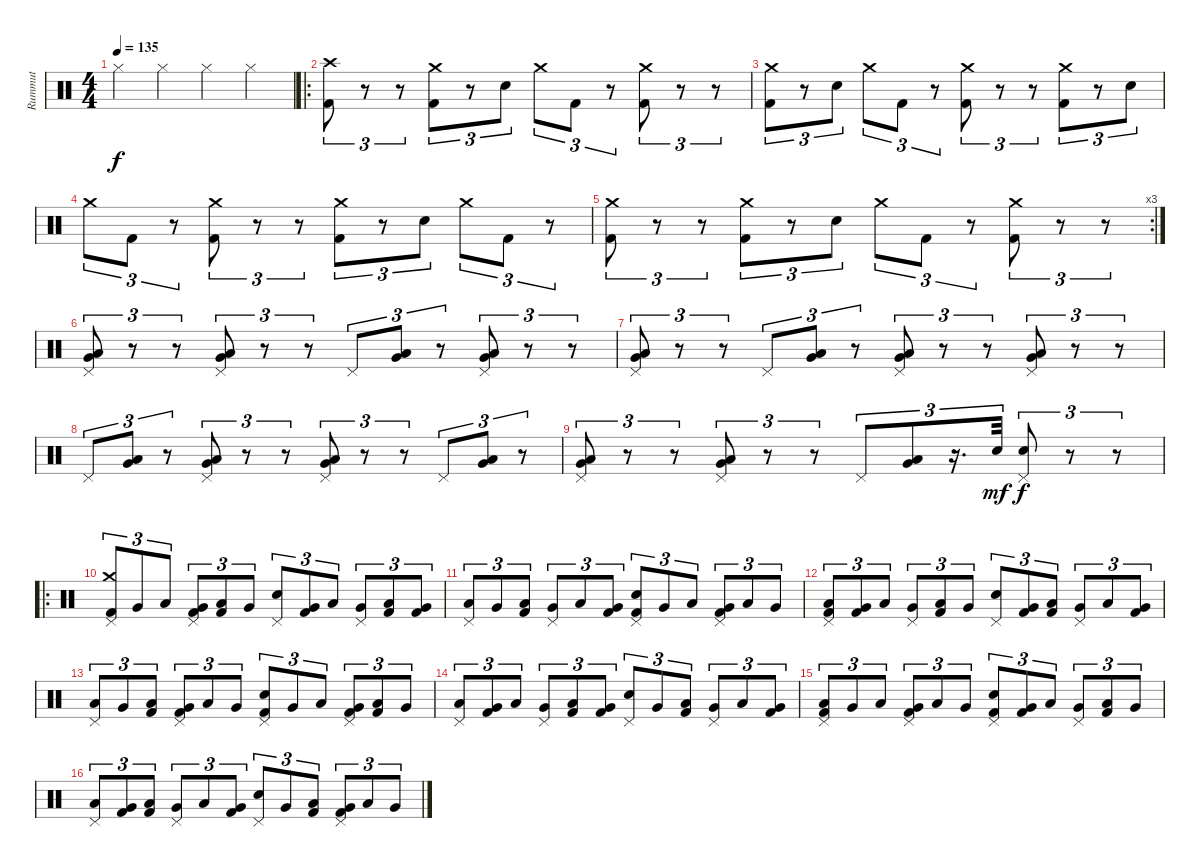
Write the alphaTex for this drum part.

\track ("Rummut" "Rummut") {instrument percussion}
\staff {score}
\articulation defaults
\ts (4 4)
\tempo 135
\clef neutral
\ks c "Hi-Hat (closed)".4{dy f} "Hi-Hat (closed)".4 "Hi-Hat (closed)".4 "Hi-Hat (closed)".4
|
\ro
("Crash high (hit)" "Kick (hit) 2").8{tu (3 2)} r.8{tu (3 2)} r.8{tu (3 2)} ("Crash medium (hit)" "Kick (hit) 2").8{tu (3 2)} r.8{tu (3 2)} "Electric Snare (hit)".8{tu (3 2)} "Crash medium (hit)".8{tu (3 2)} "Kick (hit) 2".8{tu (3 2)} r.8{tu (3 2)} ("Crash medium (hit)" "Kick (hit) 2").8{tu (3 2)} r.8{tu (3 2)} r.8{tu (3 2)} |
("Crash medium (hit)" "Kick (hit) 2").8{tu (3 2)} r.8{tu (3 2)} "Electric Snare (hit)".8{tu (3 2)} "Crash medium (hit)".8{tu (3 2)} "Kick (hit) 2".8{tu (3 2)} r.8{tu (3 2)} ("Crash medium (hit)" "Kick (hit) 2").8{tu (3 2)} r.8{tu (3 2)} r.8{tu (3 2)} ("Crash medium (hit)" "Kick (hit) 2").8{tu (3 2)} r.8{tu (3 2)} "Electric Snare (hit)".8{tu (3 2)} |
"Crash medium (hit)".8{tu (3 2)} "Kick (hit) 2".8{tu (3 2)} r.8{tu (3 2)} ("Crash medium (hit)" "Kick (hit) 2").8{tu (3 2)} r.8{tu (3 2)} r.8{tu (3 2)} ("Crash medium (hit)" "Kick (hit) 2").8{tu (3 2)} r.8{tu (3 2)} "Electric Snare (hit)".8{tu (3 2)} "Crash medium (hit)".8{tu (3 2)} "Kick (hit) 2".8{tu (3 2)} r.8{tu (3 2)} |
\rc 3
("Crash medium (hit)" "Kick (hit) 2").8{tu (3 2)} r.8{tu (3 2)} r.8{tu (3 2)} ("Crash medium (hit)" "Kick (hit) 2").8{tu (3 2)} r.8{tu (3 2)} "Electric Snare (hit)".8{tu (3 2)} "Crash medium (hit)".8{tu (3 2)} "Kick (hit) 2".8{tu (3 2)} r.8{tu (3 2)} ("Crash medium (hit)" "Kick (hit) 2").8{tu (3 2)} r.8{tu (3 2)} r.8{tu (3 2)} |
("Pedal Hi-Hat (hit)" "Very Low Tom (hit)" "Low Floor Tom (hit)").8{tu (3 2)} r.8{tu (3 2)} r.8{tu (3 2)} ("Pedal Hi-Hat (hit)" "Very Low Tom (hit)" "Low Floor Tom (hit)").8{tu (3 2)} r.8{tu (3 2)} r.8{tu (3 2)} "Pedal Hi-Hat (hit)".8{tu (3 2)} ("Very Low Tom (hit)" "Low Floor Tom (hit)").8{tu (3 2)} r.8{tu (3 2)} ("Pedal Hi-Hat (hit)" "Very Low Tom (hit)" "Low Floor Tom (hit)").8{tu (3 2)} r.8{tu (3 2)} r.8{tu (3 2)} |
("Pedal Hi-Hat (hit)" "Very Low Tom (hit)" "Low Floor Tom (hit)").8{tu (3 2)} r.8{tu (3 2)} r.8{tu (3 2)} "Pedal Hi-Hat (hit)".8{tu (3 2)} ("Very Low Tom (hit)" "Low Floor Tom (hit)").8{tu (3 2)} r.8{tu (3 2)} ("Pedal Hi-Hat (hit)" "Very Low Tom (hit)" "Low Floor Tom (hit)").8{tu (3 2)} r.8{tu (3 2)} r.8{tu (3 2)} ("Pedal Hi-Hat (hit)" "Very Low Tom (hit)" "Low Floor Tom (hit)").8{tu (3 2)} r.8{tu (3 2)} r.8{tu (3 2)} |
"Pedal Hi-Hat (hit)".8{tu (3 2)} ("Very Low Tom (hit)" "Low Floor Tom (hit)").8{tu (3 2)} r.8{tu (3 2)} ("Pedal Hi-Hat (hit)" "Very Low Tom (hit)" "Low Floor Tom (hit)").8{tu (3 2)} r.8{tu (3 2)} r.8{tu (3 2)} ("Pedal Hi-Hat (hit)" "Very Low Tom (hit)" "Low Floor Tom (hit)").8{tu (3 2)} r.8{tu (3 2)} r.8{tu (3 2)} "Pedal Hi-Hat (hit)".8{tu (3 2)} ("Very Low Tom (hit)" "Low Floor Tom (hit)").8{tu (3 2)} r.8{tu (3 2)} |
("Pedal Hi-Hat (hit)" "Very Low Tom (hit)" "Low Floor Tom (hit)").8{tu (3 2)} r.8{tu (3 2)} r.8{tu (3 2)} ("Pedal Hi-Hat (hit)" "Very Low Tom (hit)" "Low Floor Tom (hit)").8{tu (3 2)} r.8{tu (3 2)} r.8{tu (3 2)} "Pedal Hi-Hat (hit)".8{tu (3 2)} ("Very Low Tom (hit)" "Low Floor Tom (hit)").8{tu (3 2)} r.16{d tu (3 2)} "Electric Snare (hit)".32{tu (3 2) dy mf} ("Pedal Hi-Hat (hit)" "Electric Snare (hit)").8{tu (3 2) dy f} r.8{tu (3 2)} r.8{tu (3 2)} |
\ro
("Crash medium (hit)" "Pedal Hi-Hat (hit)" "Kick (hit) 2").8{tu (3 2)} "Very Low Tom (hit)".8{tu (3 2)} "Low Floor Tom (hit)".8{tu (3 2)} ("Pedal Hi-Hat (hit)" "Very Low Tom (hit)" "Kick (hit) 2").8{tu (3 2)} ("Low Floor Tom (hit)" "Kick (hit) 2").8{tu (3 2)} "Very Low Tom (hit)".8{tu (3 2)} ("Pedal Hi-Hat (hit)" "Electric Snare (hit)").8{tu (3 2)} ("Very Low Tom (hit)" "Kick (hit) 2").8{tu (3 2)} "Low Floor Tom (hit)".8{tu (3 2)} ("Pedal Hi-Hat (hit)" "Very Low Tom (hit)").8{tu (3 2)} ("Low Floor Tom (hit)" "Kick (hit) 2").8{tu (3 2)} ("Very Low Tom (hit)" "Kick (hit) 2").8{tu (3 2)} |
("Pedal Hi-Hat (hit)" "Low Floor Tom (hit)").8{tu (3 2)} "Very Low Tom (hit)".8{tu (3 2)} ("Low Floor Tom (hit)" "Kick (hit) 2").8{tu (3 2)} ("Pedal Hi-Hat (hit)" "Very Low Tom (hit)").8{tu (3 2)} "Low Floor Tom (hit)".8{tu (3 2)} ("Very Low Tom (hit)" "Kick (hit) 2").8{tu (3 2)} ("Pedal Hi-Hat (hit)" "Electric Snare (hit)" "Kick (hit) 2").8{tu (3 2)} "Very Low Tom (hit)".8{tu (3 2)} "Low Floor Tom (hit)".8{tu (3 2)} ("Pedal Hi-Hat (hit)" "Very Low Tom (hit)" "Kick (hit) 2").8{tu (3 2)} "Low Floor Tom (hit)".8{tu (3 2)} "Very Low Tom (hit)".8{tu (3 2)} |
("Pedal Hi-Hat (hit)" "Low Floor Tom (hit)" "Kick (hit) 2").8{tu (3 2)} ("Very Low Tom (hit)" "Kick (hit) 2").8{tu (3 2)} "Low Floor Tom (hit)".8{tu (3 2)} ("Pedal Hi-Hat (hit)" "Very Low Tom (hit)").8{tu (3 2)} ("Low Floor Tom (hit)" "Kick (hit) 2").8{tu (3 2)} "Very Low Tom (hit)".8{tu (3 2)} ("Pedal Hi-Hat (hit)" "Electric Snare (hit)").8{tu (3 2)} ("Very Low Tom (hit)" "Kick (hit) 2").8{tu (3 2)} ("Low Floor Tom (hit)" "Kick (hit) 2").8{tu (3 2)} ("Pedal Hi-Hat (hit)" "Very Low Tom (hit)").8{tu (3 2)} "Low Floor Tom (hit)".8{tu (3 2)} ("Very Low Tom (hit)" "Kick (hit) 2").8{tu (3 2)} |
("Pedal Hi-Hat (hit)" "Low Floor Tom (hit)").8{tu (3 2)} "Very Low Tom (hit)".8{tu (3 2)} ("Low Floor Tom (hit)" "Kick (hit) 2").8{tu (3 2)} ("Pedal Hi-Hat (hit)" "Very Low Tom (hit)" "Kick (hit) 2").8{tu (3 2)} "Low Floor Tom (hit)".8{tu (3 2)} "Very Low Tom (hit)".8{tu (3 2)} ("Pedal Hi-Hat (hit)" "Electric Snare (hit)" "Kick (hit) 2").8{tu (3 2)} "Very Low Tom (hit)".8{tu (3 2)} "Low Floor Tom (hit)".8{tu (3 2)} ("Pedal Hi-Hat (hit)" "Very Low Tom (hit)" "Kick (hit) 2").8{tu (3 2)} ("Low Floor Tom (hit)" "Kick (hit) 2").8{tu (3 2)} "Very Low Tom (hit)".8{tu (3 2)} |
("Pedal Hi-Hat (hit)" "Low Floor Tom (hit)").8{tu (3 2)} ("Very Low Tom (hit)" "Kick (hit) 2").8{tu (3 2)} "Low Floor Tom (hit)".8{tu (3 2)} ("Pedal Hi-Hat (hit)" "Very Low Tom (hit)").8{tu (3 2)} ("Low Floor Tom (hit)" "Kick (hit) 2").8{tu (3 2)} ("Very Low Tom (hit)" "Kick (hit) 2").8{tu (3 2)} ("Pedal Hi-Hat (hit)" "Electric Snare (hit)").8{tu (3 2)} "Very Low Tom (hit)".8{tu (3 2)} ("Low Floor Tom (hit)" "Kick (hit) 2").8{tu (3 2)} ("Pedal Hi-Hat (hit)" "Very Low Tom (hit)").8{tu (3 2)} "Low Floor Tom (hit)".8{tu (3 2)} ("Very Low Tom (hit)" "Kick (hit) 2").8{tu (3 2)} |
("Pedal Hi-Hat (hit)" "Low Floor Tom (hit)" "Kick (hit) 2").8{tu (3 2)} "Very Low Tom (hit)".8{tu (3 2)} "Low Floor Tom (hit)".8{tu (3 2)} ("Pedal Hi-Hat (hit)" "Very Low Tom (hit)" "Kick (hit) 2").8{tu (3 2)} "Low Floor Tom (hit)".8{tu (3 2)} "Very Low Tom (hit)".8{tu (3 2)} ("Pedal Hi-Hat (hit)" "Electric Snare (hit)" "Kick (hit) 2").8{tu (3 2)} ("Very Low Tom (hit)" "Kick (hit) 2").8{tu (3 2)} "Low Floor Tom (hit)".8{tu (3 2)} ("Pedal Hi-Hat (hit)" "Very Low Tom (hit)").8{tu (3 2)} ("Low Floor Tom (hit)" "Kick (hit) 2").8{tu (3 2)} "Very Low Tom (hit)".8{tu (3 2)} |
("Pedal Hi-Hat (hit)" "Low Floor Tom (hit)").8{tu (3 2)} ("Very Low Tom (hit)" "Kick (hit) 2").8{tu (3 2)} ("Low Floor Tom (hit)" "Kick (hit) 2").8{tu (3 2)} ("Pedal Hi-Hat (hit)" "Very Low Tom (hit)").8{tu (3 2)} "Low Floor Tom (hit)".8{tu (3 2)} ("Very Low Tom (hit)" "Kick (hit) 2").8{tu (3 2)} ("Pedal Hi-Hat (hit)" "Electric Snare (hit)").8{tu (3 2)} "Very Low Tom (hit)".8{tu (3 2)} ("Low Floor Tom (hit)" "Kick (hit) 2").8{tu (3 2)} ("Pedal Hi-Hat (hit)" "Very Low Tom (hit)" "Kick (hit) 2").8{tu (3 2)} "Low Floor Tom (hit)".8{tu (3 2)} "Very Low Tom (hit)".8{tu (3 2)}
